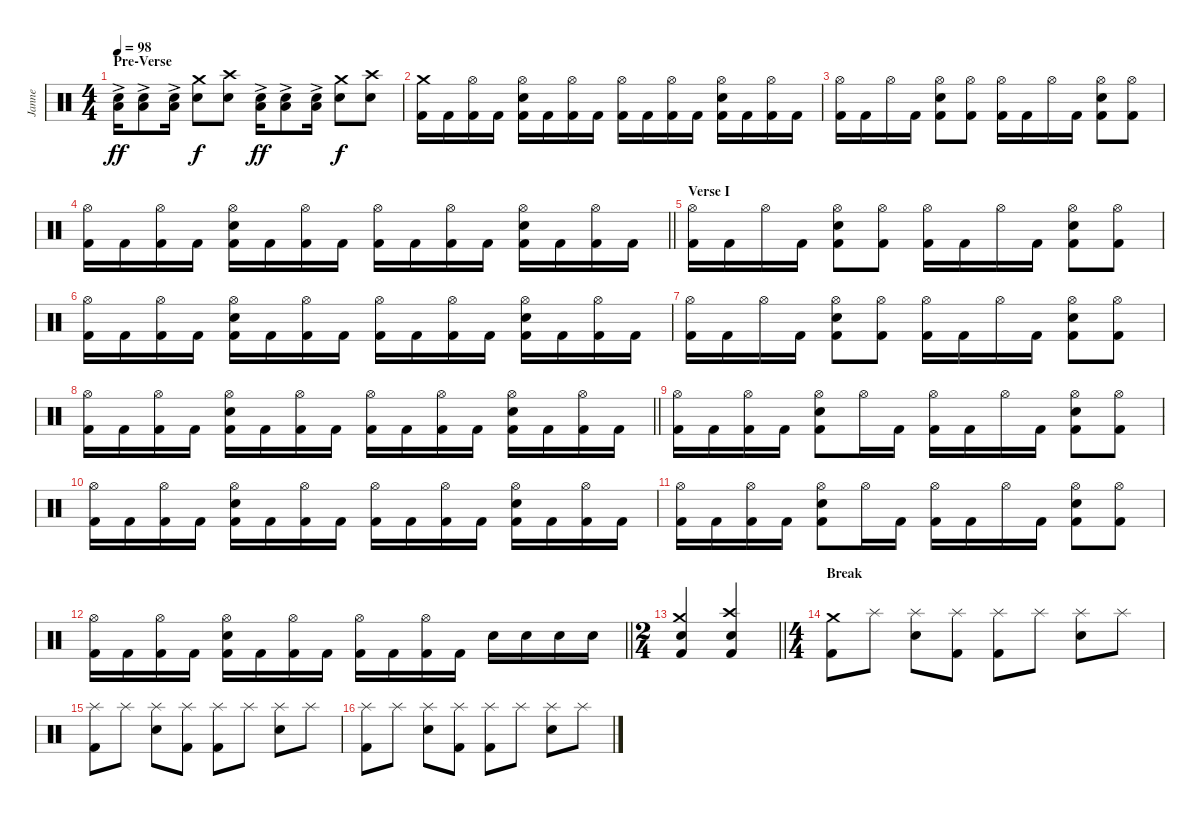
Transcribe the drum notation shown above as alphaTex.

\track ("Janne" "Janne") {instrument percussion}
\staff {score}
\articulation defaults
\ts (4 4)
\section ("" "Pre-Verse")
\tempo 98
\clef neutral
\ks c
("Snare (hit) 2" "Low Floor Tom (hit)"{ac}).16{dy ff} ("Snare (hit) 2" "Low Floor Tom (hit)"{ac}).8 ("Snare (hit) 2" "Low Floor Tom (hit)"{ac}).16 ("Snare (hit) 2" "Crash medium (hit)").8{dy f} ("Snare (hit) 2" "Crash high (hit)").8 ("Snare (hit) 2" "Low Floor Tom (hit)"{ac}).16{dy ff} ("Snare (hit) 2" "Low Floor Tom (hit)"{ac}).8 ("Snare (hit) 2" "Low Floor Tom (hit)"{ac}).16 ("Snare (hit) 2" "Crash medium (hit)").8{dy f} ("Snare (hit) 2" "Crash high (hit)").8 |
("Kick (hit) 2" "Crash medium (hit)").16 "Kick (hit) 2".16 ("Kick (hit) 2" "Hi-Hat (open)").16 "Kick (hit) 2".16 ("Kick (hit) 2" "Snare (hit) 2" "Hi-Hat (open)").16 "Kick (hit) 2".16 ("Kick (hit) 2" "Hi-Hat (open)").16 "Kick (hit) 2".16 ("Kick (hit) 2" "Hi-Hat (open)").16 "Kick (hit) 2".16 ("Kick (hit) 2" "Hi-Hat (open)").16 "Kick (hit) 2".16 ("Kick (hit) 2" "Snare (hit) 2" "Hi-Hat (open)").16 "Kick (hit) 2".16 ("Kick (hit) 2" "Hi-Hat (open)").16 "Kick (hit) 2".16 |
("Kick (hit) 2" "Hi-Hat (open)").16 "Kick (hit) 2".16 "Hi-Hat (open)".16 "Kick (hit) 2".16 ("Kick (hit) 2" "Snare (hit) 2" "Hi-Hat (open)").8 ("Kick (hit) 2" "Hi-Hat (open)").8 ("Kick (hit) 2" "Hi-Hat (open)").16 "Kick (hit) 2".16 "Hi-Hat (open)".16 "Kick (hit) 2".16 ("Kick (hit) 2" "Snare (hit) 2" "Hi-Hat (open)").8 ("Kick (hit) 2" "Hi-Hat (open)").8 |
\barLineRight lightlight
("Kick (hit) 2" "Hi-Hat (open)").16 "Kick (hit) 2".16 ("Kick (hit) 2" "Hi-Hat (open)").16 "Kick (hit) 2".16 ("Kick (hit) 2" "Snare (hit) 2" "Hi-Hat (open)").16 "Kick (hit) 2".16 ("Kick (hit) 2" "Hi-Hat (open)").16 "Kick (hit) 2".16 ("Kick (hit) 2" "Hi-Hat (open)").16 "Kick (hit) 2".16 ("Kick (hit) 2" "Hi-Hat (open)").16 "Kick (hit) 2".16 ("Kick (hit) 2" "Snare (hit) 2" "Hi-Hat (open)").16 "Kick (hit) 2".16 ("Kick (hit) 2" "Hi-Hat (open)").16 "Kick (hit) 2".16 |
\section ("" "Verse I")
("Kick (hit) 2" "Hi-Hat (open)").16 "Kick (hit) 2".16 "Hi-Hat (open)".16 "Kick (hit) 2".16 ("Kick (hit) 2" "Snare (hit) 2" "Hi-Hat (open)").8 ("Kick (hit) 2" "Hi-Hat (open)").8 ("Kick (hit) 2" "Hi-Hat (open)").16 "Kick (hit) 2".16 "Hi-Hat (open)".16 "Kick (hit) 2".16 ("Kick (hit) 2" "Snare (hit) 2" "Hi-Hat (open)").8 ("Kick (hit) 2" "Hi-Hat (open)").8 |
("Kick (hit) 2" "Hi-Hat (open)").16 "Kick (hit) 2".16 ("Kick (hit) 2" "Hi-Hat (open)").16 "Kick (hit) 2".16 ("Kick (hit) 2" "Snare (hit) 2" "Hi-Hat (open)").16 "Kick (hit) 2".16 ("Kick (hit) 2" "Hi-Hat (open)").16 "Kick (hit) 2".16 ("Kick (hit) 2" "Hi-Hat (open)").16 "Kick (hit) 2".16 ("Kick (hit) 2" "Hi-Hat (open)").16 "Kick (hit) 2".16 ("Kick (hit) 2" "Snare (hit) 2" "Hi-Hat (open)").16 "Kick (hit) 2".16 ("Kick (hit) 2" "Hi-Hat (open)").16 "Kick (hit) 2".16 |
("Kick (hit) 2" "Hi-Hat (open)").16 "Kick (hit) 2".16 "Hi-Hat (open)".16 "Kick (hit) 2".16 ("Kick (hit) 2" "Snare (hit) 2" "Hi-Hat (open)").8 ("Kick (hit) 2" "Hi-Hat (open)").8 ("Kick (hit) 2" "Hi-Hat (open)").16 "Kick (hit) 2".16 "Hi-Hat (open)".16 "Kick (hit) 2".16 ("Kick (hit) 2" "Snare (hit) 2" "Hi-Hat (open)").8 ("Kick (hit) 2" "Hi-Hat (open)").8 |
\barLineRight lightlight
("Kick (hit) 2" "Hi-Hat (open)").16 "Kick (hit) 2".16 ("Kick (hit) 2" "Hi-Hat (open)").16 "Kick (hit) 2".16 ("Kick (hit) 2" "Snare (hit) 2" "Hi-Hat (open)").16 "Kick (hit) 2".16 ("Kick (hit) 2" "Hi-Hat (open)").16 "Kick (hit) 2".16 ("Kick (hit) 2" "Hi-Hat (open)").16 "Kick (hit) 2".16 ("Kick (hit) 2" "Hi-Hat (open)").16 "Kick (hit) 2".16 ("Kick (hit) 2" "Snare (hit) 2" "Hi-Hat (open)").16 "Kick (hit) 2".16 ("Kick (hit) 2" "Hi-Hat (open)").16 "Kick (hit) 2".16 |
\section ("" "")
("Kick (hit) 2" "Hi-Hat (open)").16 "Kick (hit) 2".16 ("Kick (hit) 2" "Hi-Hat (open)").16 "Kick (hit) 2".16 ("Kick (hit) 2" "Snare (hit) 2" "Hi-Hat (open)").8 "Hi-Hat (open)".16 "Kick (hit) 2".16 ("Kick (hit) 2" "Hi-Hat (open)").16 "Kick (hit) 2".16 "Hi-Hat (open)".16 "Kick (hit) 2".16 ("Kick (hit) 2" "Snare (hit) 2" "Hi-Hat (open)").8 ("Kick (hit) 2" "Hi-Hat (open)").8 |
("Kick (hit) 2" "Hi-Hat (open)").16 "Kick (hit) 2".16 ("Kick (hit) 2" "Hi-Hat (open)").16 "Kick (hit) 2".16 ("Kick (hit) 2" "Snare (hit) 2" "Hi-Hat (open)").16 "Kick (hit) 2".16 ("Kick (hit) 2" "Hi-Hat (open)").16 "Kick (hit) 2".16 ("Kick (hit) 2" "Hi-Hat (open)").16 "Kick (hit) 2".16 ("Kick (hit) 2" "Hi-Hat (open)").16 "Kick (hit) 2".16 ("Kick (hit) 2" "Snare (hit) 2" "Hi-Hat (open)").16 "Kick (hit) 2".16 ("Kick (hit) 2" "Hi-Hat (open)").16 "Kick (hit) 2".16 |
("Kick (hit) 2" "Hi-Hat (open)").16 "Kick (hit) 2".16 ("Kick (hit) 2" "Hi-Hat (open)").16 "Kick (hit) 2".16 ("Kick (hit) 2" "Snare (hit) 2" "Hi-Hat (open)").8 "Hi-Hat (open)".16 "Kick (hit) 2".16 ("Kick (hit) 2" "Hi-Hat (open)").16 "Kick (hit) 2".16 "Hi-Hat (open)".16 "Kick (hit) 2".16 ("Kick (hit) 2" "Snare (hit) 2" "Hi-Hat (open)").8 ("Kick (hit) 2" "Hi-Hat (open)").8 |
\barLineRight lightlight
("Kick (hit) 2" "Hi-Hat (open)").16 "Kick (hit) 2".16 ("Kick (hit) 2" "Hi-Hat (open)").16 "Kick (hit) 2".16 ("Kick (hit) 2" "Snare (hit) 2" "Hi-Hat (open)").16 "Kick (hit) 2".16 ("Kick (hit) 2" "Hi-Hat (open)").16 "Kick (hit) 2".16 ("Kick (hit) 2" "Hi-Hat (open)").16 "Kick (hit) 2".16 ("Kick (hit) 2" "Hi-Hat (open)").16 "Kick (hit) 2".16 "Snare (hit) 2".16 "Snare (hit) 2".16 "Snare (hit) 2".16 "Snare (hit) 2".16 |
\ts (2 4)
\section ("" "")
\barLineRight lightlight
("Kick (hit) 2" "Snare (hit) 2" "Crash medium (hit)").4 ("Kick (hit) 2" "Snare (hit) 2" "Crash high (hit)").4 |
\ts (4 4)
\section ("" "Break")
("Kick (hit) 2" "Crash medium (hit)").8 "Splash (hit)".8 ("Snare (hit) 2" "Splash (hit)").8 ("Kick (hit) 2" "Splash (hit)").8 ("Kick (hit) 2" "Splash (hit)").8 "Splash (hit)".8 ("Snare (hit) 2" "Splash (hit)").8 "Splash (hit)".8 |
("Kick (hit) 2" "Splash (hit)").8 "Splash (hit)".8 ("Snare (hit) 2" "Splash (hit)").8 ("Kick (hit) 2" "Splash (hit)").8 ("Kick (hit) 2" "Splash (hit)").8 "Splash (hit)".8 ("Snare (hit) 2" "Splash (hit)").8 "Splash (hit)".8 |
("Kick (hit) 2" "Splash (hit)").8 "Splash (hit)".8 ("Snare (hit) 2" "Splash (hit)").8 ("Kick (hit) 2" "Splash (hit)").8 ("Kick (hit) 2" "Splash (hit)").8 "Splash (hit)".8 ("Snare (hit) 2" "Splash (hit)").8 "Splash (hit)".8
